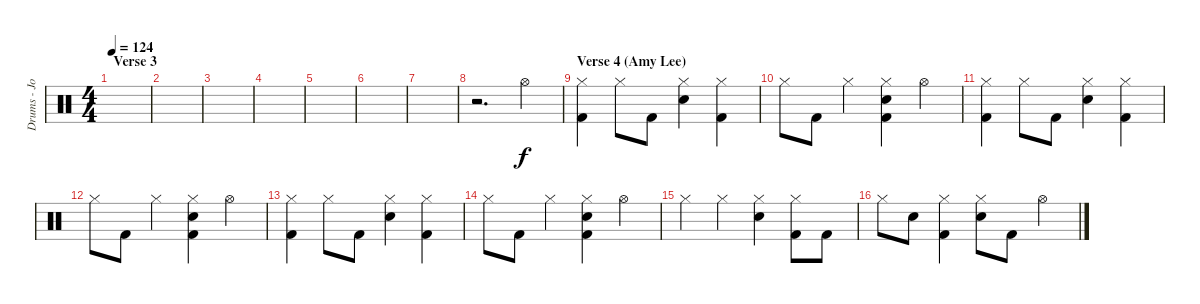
\track ("Drums - John Humphrey" "Drums - Jo") {instrument percussion}
\staff {score}
\articulation defaults
\ts (4 4)
\section ("" "Verse 3")
\tempo 124
\clef neutral
\ks c
|
|
|
|
|
|
|
r.2{d} "Hi-Hat (open)".4 |
\section ("" "Verse 4 (Amy Lee)")
("Hi-Hat (closed)" "Kick (hit) 2").4 "Hi-Hat (closed)".8 "Kick (hit) 2".8 ("Hi-Hat (closed)" "Electric Snare (hit)").4 ("Hi-Hat (closed)" "Kick (hit) 2").4 |
"Hi-Hat (closed)".8 "Kick (hit) 2".8 "Hi-Hat (closed)".4 ("Hi-Hat (closed)" "Electric Snare (hit)" "Kick (hit) 2").4 "Hi-Hat (open)".4 |
("Hi-Hat (closed)" "Kick (hit) 2").4 "Hi-Hat (closed)".8 "Kick (hit) 2".8 ("Hi-Hat (closed)" "Electric Snare (hit)").4 ("Hi-Hat (closed)" "Kick (hit) 2").4 |
"Hi-Hat (closed)".8 "Kick (hit) 2".8 "Hi-Hat (closed)".4 ("Hi-Hat (closed)" "Electric Snare (hit)" "Kick (hit) 2").4 "Hi-Hat (open)".4 |
("Hi-Hat (closed)" "Kick (hit) 2").4 "Hi-Hat (closed)".8 "Kick (hit) 2".8 ("Hi-Hat (closed)" "Electric Snare (hit)").4 ("Hi-Hat (closed)" "Kick (hit) 2").4 |
"Hi-Hat (closed)".8 "Kick (hit) 2".8 "Hi-Hat (closed)".4 ("Hi-Hat (closed)" "Electric Snare (hit)" "Kick (hit) 2").4 "Hi-Hat (open)".4 |
"Hi-Hat (closed)".4 "Hi-Hat (closed)".4 ("Hi-Hat (closed)" "Electric Snare (hit)").4 ("Hi-Hat (closed)" "Kick (hit) 2").8 "Kick (hit) 2".8 |
"Hi-Hat (closed)".8 "Electric Snare (hit)".8 ("Hi-Hat (closed)" "Kick (hit) 2").4 ("Hi-Hat (closed)" "Electric Snare (hit)").8 "Kick (hit) 2".8 "Hi-Hat (open)".4
